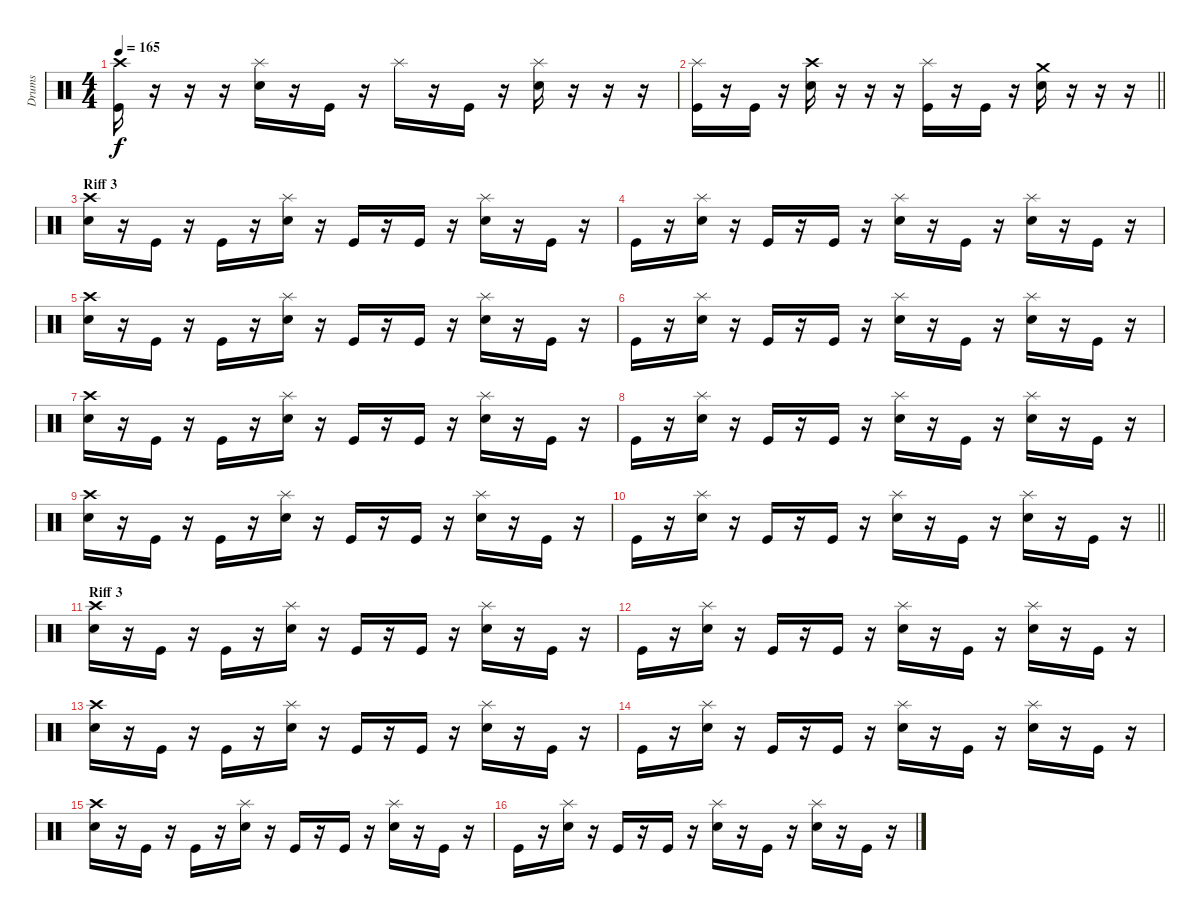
\track ("Drums" "Drums") {instrument percussion}
\staff {score}
\articulation defaults
\ts (4 4)
\tempo 165
\clef neutral
\ks c
("Crash high (hit)" "Kick (hit)").16{dy f} r.16 r.16 r.16 ("Splash (hit)" "Electric Snare (hit)").16 r.16 "Kick (hit)".16 r.16 "Splash (hit)".16 r.16 "Kick (hit)".16 r.16 ("Splash (hit)" "Electric Snare (hit)").16 r.16 r.16 r.16 |
\barLineRight lightlight
("Splash (hit)" "Kick (hit)").16 r.16 "Kick (hit)".16 r.16 ("Crash high (hit)" "Electric Snare (hit)").16 r.16 r.16 r.16 ("Splash (hit)" "Kick (hit)").16 r.16 "Kick (hit)".16 r.16 ("Crash medium (hit)" "Electric Snare (hit)").16 r.16 r.16 r.16 |
\section ("" "Riff 3")
("Crash high (hit)" "Electric Snare (hit)").16 r.16 "Kick (hit)".16 r.16 "Kick (hit)".16 r.16 ("Splash (hit)" "Electric Snare (hit)").16 r.16 "Kick (hit)".16 r.16 "Kick (hit)".16 r.16 ("Splash (hit)" "Electric Snare (hit)").16 r.16 "Kick (hit)".16 r.16 |
"Kick (hit)".16 r.16 ("Splash (hit)" "Electric Snare (hit)").16 r.16 "Kick (hit)".16 r.16 "Kick (hit)".16 r.16 ("Splash (hit)" "Electric Snare (hit)").16 r.16 "Kick (hit)".16 r.16 ("Splash (hit)" "Electric Snare (hit)").16 r.16 "Kick (hit)".16 r.16 |
("Crash high (hit)" "Electric Snare (hit)").16 r.16 "Kick (hit)".16 r.16 "Kick (hit)".16 r.16 ("Splash (hit)" "Electric Snare (hit)").16 r.16 "Kick (hit)".16 r.16 "Kick (hit)".16 r.16 ("Splash (hit)" "Electric Snare (hit)").16 r.16 "Kick (hit)".16 r.16 |
"Kick (hit)".16 r.16 ("Splash (hit)" "Electric Snare (hit)").16 r.16 "Kick (hit)".16 r.16 "Kick (hit)".16 r.16 ("Splash (hit)" "Electric Snare (hit)").16 r.16 "Kick (hit)".16 r.16 ("Splash (hit)" "Electric Snare (hit)").16 r.16 "Kick (hit)".16 r.16 |
("Crash high (hit)" "Electric Snare (hit)").16 r.16 "Kick (hit)".16 r.16 "Kick (hit)".16 r.16 ("Splash (hit)" "Electric Snare (hit)").16 r.16 "Kick (hit)".16 r.16 "Kick (hit)".16 r.16 ("Splash (hit)" "Electric Snare (hit)").16 r.16 "Kick (hit)".16 r.16 |
"Kick (hit)".16 r.16 ("Splash (hit)" "Electric Snare (hit)").16 r.16 "Kick (hit)".16 r.16 "Kick (hit)".16 r.16 ("Splash (hit)" "Electric Snare (hit)").16 r.16 "Kick (hit)".16 r.16 ("Splash (hit)" "Electric Snare (hit)").16 r.16 "Kick (hit)".16 r.16 |
("Crash high (hit)" "Electric Snare (hit)").16 r.16 "Kick (hit)".16 r.16 "Kick (hit)".16 r.16 ("Splash (hit)" "Electric Snare (hit)").16 r.16 "Kick (hit)".16 r.16 "Kick (hit)".16 r.16 ("Splash (hit)" "Electric Snare (hit)").16 r.16 "Kick (hit)".16 r.16 |
\barLineRight lightlight "Kick (hit)".16
r.16 ("Splash (hit)" "Electric Snare (hit)").16 r.16 "Kick (hit)".16 r.16 "Kick (hit)".16 r.16 ("Splash (hit)" "Electric Snare (hit)").16 r.16 "Kick (hit)".16 r.16 ("Splash (hit)" "Electric Snare (hit)").16 r.16 "Kick (hit)".16 r.16 |
\section ("" "Riff 3")
("Crash high (hit)" "Electric Snare (hit)").16 r.16 "Kick (hit)".16 r.16 "Kick (hit)".16 r.16 ("Splash (hit)" "Electric Snare (hit)").16 r.16 "Kick (hit)".16 r.16 "Kick (hit)".16 r.16 ("Splash (hit)" "Electric Snare (hit)").16 r.16 "Kick (hit)".16 r.16 |
"Kick (hit)".16 r.16 ("Splash (hit)" "Electric Snare (hit)").16 r.16 "Kick (hit)".16 r.16 "Kick (hit)".16 r.16 ("Splash (hit)" "Electric Snare (hit)").16 r.16 "Kick (hit)".16 r.16 ("Splash (hit)" "Electric Snare (hit)").16 r.16 "Kick (hit)".16 r.16 |
("Crash high (hit)" "Electric Snare (hit)").16 r.16 "Kick (hit)".16 r.16 "Kick (hit)".16 r.16 ("Splash (hit)" "Electric Snare (hit)").16 r.16 "Kick (hit)".16 r.16 "Kick (hit)".16 r.16 ("Splash (hit)" "Electric Snare (hit)").16 r.16 "Kick (hit)".16 r.16 |
"Kick (hit)".16 r.16 ("Splash (hit)" "Electric Snare (hit)").16 r.16 "Kick (hit)".16 r.16 "Kick (hit)".16 r.16 ("Splash (hit)" "Electric Snare (hit)").16 r.16 "Kick (hit)".16 r.16 ("Splash (hit)" "Electric Snare (hit)").16 r.16 "Kick (hit)".16 r.16 |
("Crash high (hit)" "Electric Snare (hit)").16 r.16 "Kick (hit)".16 r.16 "Kick (hit)".16 r.16 ("Splash (hit)" "Electric Snare (hit)").16 r.16 "Kick (hit)".16 r.16 "Kick (hit)".16 r.16 ("Splash (hit)" "Electric Snare (hit)").16 r.16 "Kick (hit)".16 r.16 |
"Kick (hit)".16 r.16 ("Splash (hit)" "Electric Snare (hit)").16 r.16 "Kick (hit)".16 r.16 "Kick (hit)".16 r.16 ("Splash (hit)" "Electric Snare (hit)").16 r.16 "Kick (hit)".16 r.16 ("Splash (hit)" "Electric Snare (hit)").16 r.16 "Kick (hit)".16 r.16
